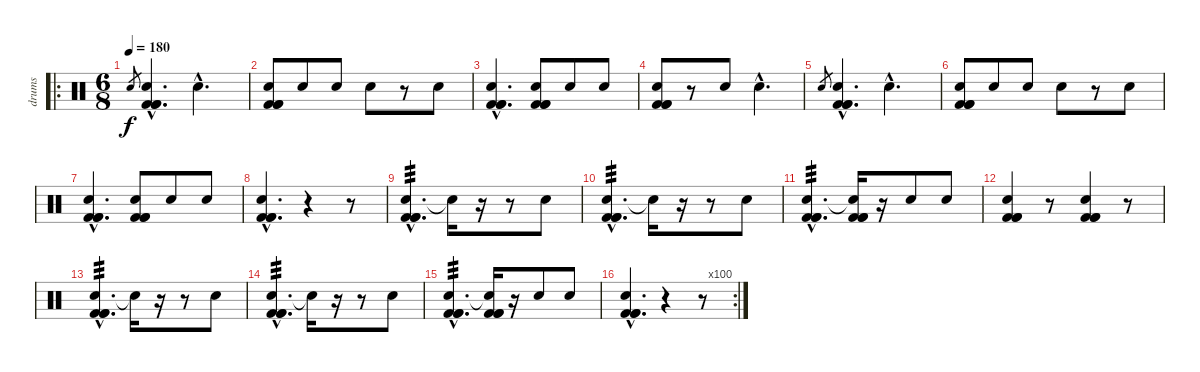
\track ("drums" "drums") {instrument percussion}
\staff {score}
\articulation defaults
\ro
\ts (6 8)
\tempo 180
\clef neutral
\ks c "Snare (hit) 2".8{gr dy f}
("Snare (hit) 2"{hac} "Kick (hit) 2"{hac} "Kick (hit) 2"{hac} "Kick (hit) 2"{hac}).4{d} "Snare (hit) 2"{hac}.4{d} |
("Snare (hit) 2" "Kick (hit) 2" "Kick (hit) 2" "Kick (hit) 2").8 "Snare (hit) 2".8 "Snare (hit) 2".8 "Snare (hit) 2".8 r.8 "Snare (hit) 2".8 |
("Snare (hit) 2"{hac} "Kick (hit) 2"{hac} "Kick (hit) 2"{hac} "Kick (hit) 2"{hac}).4{d} ("Snare (hit) 2" "Kick (hit) 2" "Kick (hit) 2" "Kick (hit) 2").8 "Snare (hit) 2".8 "Snare (hit) 2".8 |
("Snare (hit) 2" "Kick (hit) 2" "Kick (hit) 2" "Kick (hit) 2").8 r.8 "Snare (hit) 2".8 "Snare (hit) 2"{hac}.4{d} |
"Snare (hit) 2".8{gr} ("Snare (hit) 2"{hac} "Kick (hit) 2"{hac} "Kick (hit) 2"{hac} "Kick (hit) 2"{hac}).4{d} "Snare (hit) 2"{hac}.4{d} |
("Snare (hit) 2" "Kick (hit) 2" "Kick (hit) 2" "Kick (hit) 2").8 "Snare (hit) 2".8 "Snare (hit) 2".8 "Snare (hit) 2".8 r.8 "Snare (hit) 2".8 |
("Snare (hit) 2"{hac} "Kick (hit) 2"{hac} "Kick (hit) 2"{hac} "Kick (hit) 2"{hac}).4{d} ("Snare (hit) 2" "Kick (hit) 2" "Kick (hit) 2" "Kick (hit) 2").8 "Snare (hit) 2".8 "Snare (hit) 2".8 |
("Snare (hit) 2"{hac} "Kick (hit) 2"{hac} "Kick (hit) 2"{hac} "Kick (hit) 2"{hac}).4{d} r.4 r.8 |
("Snare (hit) 2"{hac} "Kick (hit) 2"{hac} "Kick (hit) 2"{hac} "Kick (hit) 2"{hac}).4{d tp 3} "Snare (hit)"{t}.16 r.16 r.8 "Snare (hit) 2".8 |
("Snare (hit) 2"{hac} "Kick (hit) 2"{hac} "Kick (hit) 2"{hac} "Kick (hit) 2"{hac}).4{d tp 3} "Snare (hit)"{t}.16 r.16 r.8 "Snare (hit) 2".8 |
("Snare (hit) 2"{hac} "Kick (hit) 2"{hac} "Kick (hit) 2"{hac} "Kick (hit) 2"{hac}).4{d tp 3} ("Snare (hit)"{t} "Kick (hit) 2" "Kick (hit) 2" "Kick (hit) 2").16 r.16 "Snare (hit) 2".8 "Snare (hit) 2".8 |
("Snare (hit) 2" "Kick (hit) 2" "Kick (hit) 2" "Kick (hit) 2").4 r.8 ("Snare (hit) 2" "Kick (hit) 2" "Kick (hit) 2" "Kick (hit) 2").4 r.8 |
("Snare (hit) 2"{hac} "Kick (hit) 2"{hac} "Kick (hit) 2"{hac} "Kick (hit) 2"{hac}).4{d tp 3} "Snare (hit)"{t}.16 r.16 r.8 "Snare (hit) 2".8 |
("Snare (hit) 2"{hac} "Kick (hit) 2"{hac} "Kick (hit) 2"{hac} "Kick (hit) 2"{hac}).4{d tp 3} "Snare (hit)"{t}.16 r.16 r.8 "Snare (hit) 2".8 |
("Snare (hit) 2"{hac} "Kick (hit) 2"{hac} "Kick (hit) 2"{hac} "Kick (hit) 2"{hac}).4{d tp 3} ("Snare (hit)"{t} "Kick (hit) 2" "Kick (hit) 2" "Kick (hit) 2").16 r.16 "Snare (hit) 2".8 "Snare (hit) 2".8 |
\rc 100
("Snare (hit) 2"{hac} "Kick (hit) 2"{hac} "Kick (hit) 2"{hac} "Kick (hit) 2"{hac}).4{d} r.4 r.8
